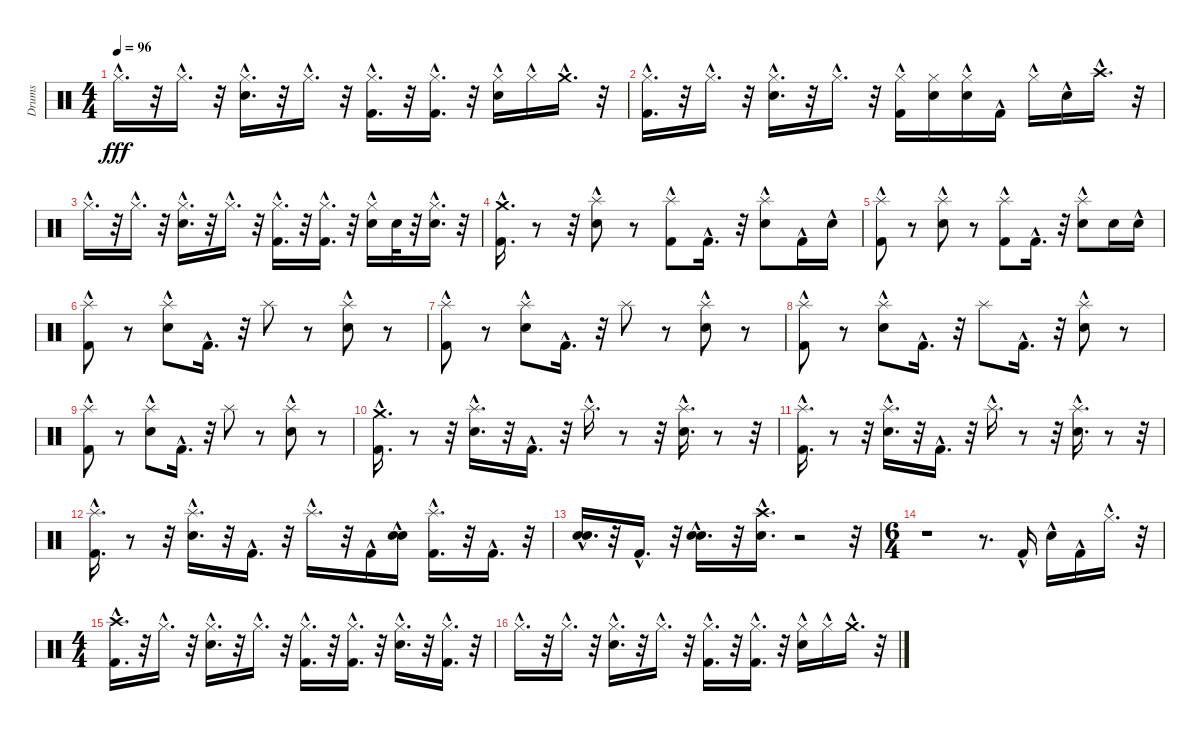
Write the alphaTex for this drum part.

\track ("Drums" "Drums") {instrument percussion}
\staff {score}
\articulation defaults
\ts (4 4)
\tempo 96
\clef neutral
\ks c "Hi-Hat (closed)"{hac}.16{d dy fff}
r.32 "Hi-Hat (closed)"{hac}.16{d} r.32 ("Hi-Hat (closed)"{hac} "Snare (hit) 2"{hac}).16{d} r.32 "Hi-Hat (closed)"{hac}.16{d} r.32 ("Hi-Hat (closed)"{hac} "Kick (hit) 2"{hac}).16{d} r.32 ("Hi-Hat (closed)"{hac} "Kick (hit) 2"{hac}).16{d} r.32 ("Hi-Hat (closed)" "Snare (hit) 2"{hac}).16 "Hi-Hat (closed)"{hac}.16 "Crash medium (hit)"{hac}.16{d} r.32 |
("Hi-Hat (closed)"{hac} "Kick (hit) 2"{hac}).16{d} r.32 "Hi-Hat (closed)"{hac}.16{d} r.32 ("Hi-Hat (closed)"{hac} "Snare (hit) 2"{hac}).16{d} r.32 "Hi-Hat (closed)"{hac}.16{d} r.32 ("Hi-Hat (closed)" "Kick (hit) 2"{hac}).16 ("Snare (hit) 2" "Hi-Hat (closed)").16 ("Hi-Hat (closed)"{hac} "Snare (hit) 2"{hac}).16 "Kick (hit) 2"{hac}.16 "Hi-Hat (closed)"{hac}.16 "Snare (hit) 2"{hac}.16 "Crash high (hit)"{hac}.16{d} r.32 |
"Hi-Hat (closed)"{hac}.16{d} r.32 "Hi-Hat (closed)"{hac}.16{d} r.32 ("Hi-Hat (closed)"{hac} "Snare (hit) 2"{hac}).16{d} r.32 "Hi-Hat (closed)"{hac}.16{d} r.32 ("Hi-Hat (closed)"{hac} "Kick (hit) 2"{hac}).16{d} r.32 ("Hi-Hat (closed)"{hac} "Kick (hit) 2"{hac}).16{d} r.32 ("Hi-Hat (closed)"{hac} "Snare (hit) 2").16 "Snare (hit) 2".32 r.32 ("Hi-Hat (closed)"{hac} "Snare (hit) 2"{hac}).16{d} r.32 |
("Kick (hit) 2"{hac} "Crash medium (hit)"{hac}).16{d} r.8 r.32 ("Snare (hit) 2"{hac} "Splash (hit)").8 r.8 ("Kick (hit) 2"{hac} "Splash (hit)").8 "Kick (hit) 2"{hac}.16{d} r.32 ("Snare (hit) 2"{hac} "Splash (hit)").8 "Kick (hit) 2"{hac}.16 "Snare (hit) 2"{hac}.16 |
("Kick (hit) 2"{hac} "Splash (hit)").8 r.8 ("Snare (hit) 2"{hac} "Splash (hit)").8 r.8 ("Kick (hit) 2"{hac} "Splash (hit)").8 "Kick (hit) 2"{hac}.16{d} r.32 ("Snare (hit) 2"{hac} "Splash (hit)").8 "Snare (hit) 2".16 "Snare (hit) 2"{hac}.16 |
("Kick (hit) 2"{hac} "Splash (hit)").8 r.8 ("Snare (hit) 2"{hac} "Splash (hit)").8 "Kick (hit) 2"{hac}.16{d} r.32 "Splash (hit)".8 r.8 ("Snare (hit) 2"{hac} "Splash (hit)").8 r.8 |
("Kick (hit) 2"{hac} "Splash (hit)").8 r.8 ("Snare (hit) 2"{hac} "Splash (hit)").8 "Kick (hit) 2"{hac}.16{d} r.32 "Splash (hit)".8 r.8 ("Snare (hit) 2"{hac} "Splash (hit)").8 r.8 |
("Kick (hit) 2"{hac} "Splash (hit)").8 r.8 ("Snare (hit) 2"{hac} "Splash (hit)").8 "Kick (hit) 2"{hac}.16{d} r.32 "Splash (hit)".8 "Kick (hit) 2"{hac}.16{d} r.32 ("Snare (hit) 2"{hac} "Splash (hit)").8 r.8 |
("Kick (hit) 2"{hac} "Splash (hit)").8 r.8 ("Snare (hit) 2"{hac} "Splash (hit)").8 "Kick (hit) 2"{hac}.16{d} r.32 "Splash (hit)".8 r.8 ("Snare (hit) 2"{hac} "Splash (hit)").8 r.8 |
("Kick (hit) 2"{hac} "Crash medium (hit)"{hac}).16{d} r.8 r.32 ("Snare (hit) 2"{hac} "Splash (hit)"{hac}).16{d} r.32 "Kick (hit) 2"{hac}.16{d} r.32 "Splash (hit)"{hac}.16{d} r.8 r.32 ("Snare (hit) 2"{hac} "Splash (hit)"{hac}).16{d} r.8 r.32 |
("Kick (hit) 2"{hac} "Splash (hit)"{hac}).16{d} r.8 r.32 ("Snare (hit) 2"{hac} "Splash (hit)"{hac}).16{d} r.32 "Kick (hit) 2"{hac}.16{d} r.32 "Splash (hit)"{hac}.16{d} r.8 r.32 ("Snare (hit) 2"{hac} "Splash (hit)"{hac}).16{d} r.8 r.32 |
("Kick (hit) 2"{hac} "Splash (hit)"{hac}).16{d} r.8 r.32 ("Snare (hit) 2"{hac} "Splash (hit)"{hac}).16{d} r.32 "Kick (hit) 2"{hac}.16{d} r.32 "Splash (hit)"{hac}.16{d} r.32 "Kick (hit) 2"{hac}.16 ("Snare (hit) 2"{hac} "Snare (hit) 2"{hac}).16 ("Kick (hit) 2"{hac} "Splash (hit)"{hac}).16{d} r.32 "Kick (hit) 2"{hac}.16{d} r.32 |
("Snare (hit) 2"{hac} "Snare (hit) 2"{hac}).16{d} r.32 "Kick (hit) 2"{hac}.16{d} r.32 ("Snare (hit) 2"{hac} "Snare (hit) 2"{hac}).16{d} r.32 ("Snare (hit) 2"{hac} "Crash high (hit)"{hac}).16{d} r.2 r.32 |
\ts (6 4)
r.1 r.8{d} "Kick (hit) 2"{hac}.16 "Snare (hit) 2"{hac}.16 "Kick (hit) 2"{hac}.16 "Hi-Hat (closed)"{hac}.16{d} r.32 |
\ts (4 4)
("Kick (hit) 2"{hac} "Crash high (hit)"{hac}).16{d} r.32 "Hi-Hat (closed)"{hac}.16{d} r.32 ("Hi-Hat (closed)"{hac} "Snare (hit) 2"{hac}).16{d} r.32 "Hi-Hat (closed)"{hac}.16{d} r.32 ("Hi-Hat (closed)"{hac} "Kick (hit) 2"{hac}).16{d} r.32 ("Hi-Hat (closed)"{hac} "Kick (hit) 2"{hac}).16{d} r.32 ("Hi-Hat (closed)"{hac} "Snare (hit) 2"{hac}).16{d} r.32 ("Hi-Hat (closed)"{hac} "Kick (hit) 2"{hac}).16{d} r.32 |
"Hi-Hat (closed)"{hac}.16{d} r.32 "Hi-Hat (closed)"{hac}.16{d} r.32 ("Snare (hit) 2"{hac} "Hi-Hat (closed)"{hac}).16{d} r.32 "Hi-Hat (closed)"{hac}.16{d} r.32 ("Kick (hit) 2"{hac} "Hi-Hat (closed)"{hac}).16{d} r.32 ("Hi-Hat (closed)"{hac} "Kick (hit) 2"{hac}).16{d} r.32 ("Hi-Hat (closed)" "Snare (hit) 2"{hac}).16 "Hi-Hat (closed)"{hac}.16 "Crash medium (hit)"{hac}.16{d} r.32
